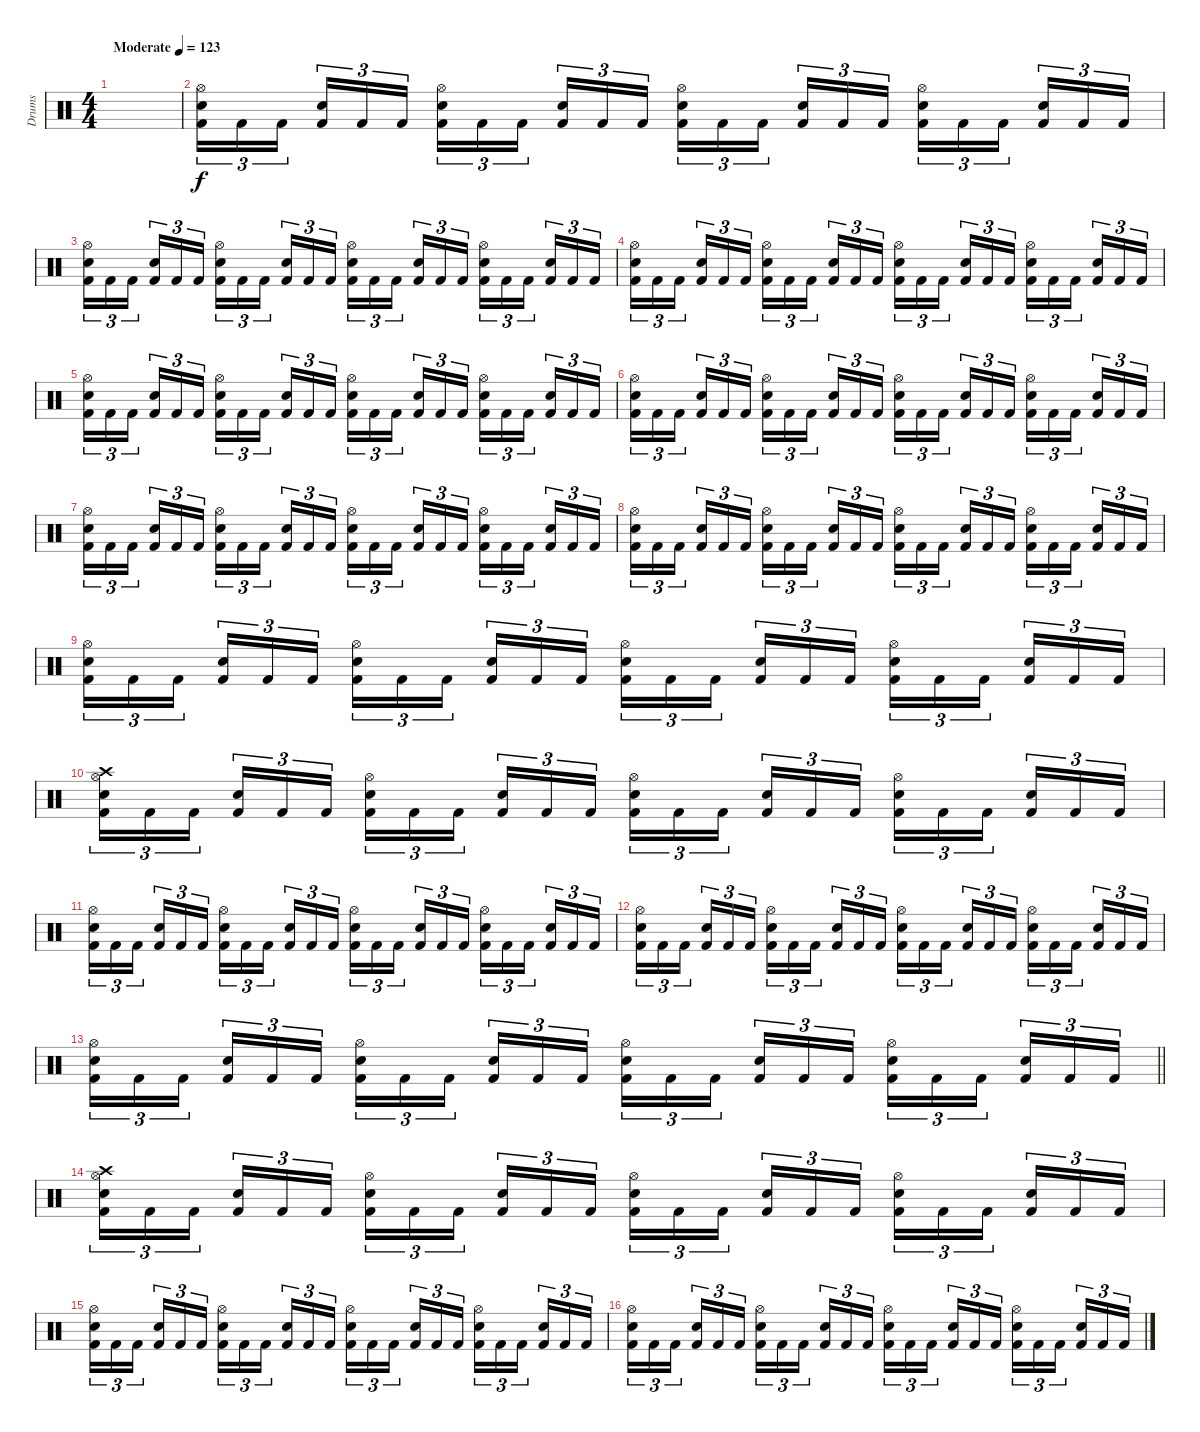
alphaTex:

\track ("Drums" "Drums") {instrument percussion}
\staff {score}
\articulation defaults
\ts (4 4)
\tempo (123 "Moderate")
\clef neutral
\ks c
|
("Hi-Hat (open)" "Snare (hit) 2" "Kick (hit) 2").16{tu (3 2)} "Kick (hit) 2".16{tu (3 2)} "Kick (hit) 2".16{tu (3 2) beam splitsecondary} ("Snare (hit) 2" "Kick (hit) 2").16{tu (3 2)} "Kick (hit) 2".16{tu (3 2)} "Kick (hit) 2".16{tu (3 2)} ("Hi-Hat (open)" "Snare (hit) 2" "Kick (hit) 2").16{tu (3 2)} "Kick (hit) 2".16{tu (3 2)} "Kick (hit) 2".16{tu (3 2) beam splitsecondary} ("Snare (hit) 2" "Kick (hit) 2").16{tu (3 2)} "Kick (hit) 2".16{tu (3 2)} "Kick (hit) 2".16{tu (3 2)} ("Hi-Hat (open)" "Snare (hit) 2" "Kick (hit) 2").16{tu (3 2)} "Kick (hit) 2".16{tu (3 2)} "Kick (hit) 2".16{tu (3 2) beam splitsecondary} ("Snare (hit) 2" "Kick (hit) 2").16{tu (3 2)} "Kick (hit) 2".16{tu (3 2)} "Kick (hit) 2".16{tu (3 2)} ("Hi-Hat (open)" "Snare (hit) 2" "Kick (hit) 2").16{tu (3 2)} "Kick (hit) 2".16{tu (3 2)} "Kick (hit) 2".16{tu (3 2) beam splitsecondary} ("Snare (hit) 2" "Kick (hit) 2").16{tu (3 2)} "Kick (hit) 2".16{tu (3 2)} "Kick (hit) 2".16{tu (3 2)} |
("Hi-Hat (open)" "Snare (hit) 2" "Kick (hit) 2").16{tu (3 2)} "Kick (hit) 2".16{tu (3 2)} "Kick (hit) 2".16{tu (3 2) beam splitsecondary} ("Snare (hit) 2" "Kick (hit) 2").16{tu (3 2)} "Kick (hit) 2".16{tu (3 2)} "Kick (hit) 2".16{tu (3 2)} ("Hi-Hat (open)" "Snare (hit) 2" "Kick (hit) 2").16{tu (3 2)} "Kick (hit) 2".16{tu (3 2)} "Kick (hit) 2".16{tu (3 2) beam splitsecondary} ("Snare (hit) 2" "Kick (hit) 2").16{tu (3 2)} "Kick (hit) 2".16{tu (3 2)} "Kick (hit) 2".16{tu (3 2)} ("Hi-Hat (open)" "Snare (hit) 2" "Kick (hit) 2").16{tu (3 2)} "Kick (hit) 2".16{tu (3 2)} "Kick (hit) 2".16{tu (3 2) beam splitsecondary} ("Snare (hit) 2" "Kick (hit) 2").16{tu (3 2)} "Kick (hit) 2".16{tu (3 2)} "Kick (hit) 2".16{tu (3 2)} ("Hi-Hat (open)" "Snare (hit) 2" "Kick (hit) 2").16{tu (3 2)} "Kick (hit) 2".16{tu (3 2)} "Kick (hit) 2".16{tu (3 2) beam splitsecondary} ("Snare (hit) 2" "Kick (hit) 2").16{tu (3 2)} "Kick (hit) 2".16{tu (3 2)} "Kick (hit) 2".16{tu (3 2)} |
("Hi-Hat (open)" "Snare (hit) 2" "Kick (hit) 2").16{tu (3 2)} "Kick (hit) 2".16{tu (3 2)} "Kick (hit) 2".16{tu (3 2) beam splitsecondary} ("Snare (hit) 2" "Kick (hit) 2").16{tu (3 2)} "Kick (hit) 2".16{tu (3 2)} "Kick (hit) 2".16{tu (3 2)} ("Hi-Hat (open)" "Snare (hit) 2" "Kick (hit) 2").16{tu (3 2)} "Kick (hit) 2".16{tu (3 2)} "Kick (hit) 2".16{tu (3 2) beam splitsecondary} ("Snare (hit) 2" "Kick (hit) 2").16{tu (3 2)} "Kick (hit) 2".16{tu (3 2)} "Kick (hit) 2".16{tu (3 2)} ("Hi-Hat (open)" "Snare (hit) 2" "Kick (hit) 2").16{tu (3 2)} "Kick (hit) 2".16{tu (3 2)} "Kick (hit) 2".16{tu (3 2) beam splitsecondary} ("Snare (hit) 2" "Kick (hit) 2").16{tu (3 2)} "Kick (hit) 2".16{tu (3 2)} "Kick (hit) 2".16{tu (3 2)} ("Hi-Hat (open)" "Snare (hit) 2" "Kick (hit) 2").16{tu (3 2)} "Kick (hit) 2".16{tu (3 2)} "Kick (hit) 2".16{tu (3 2) beam splitsecondary} ("Snare (hit) 2" "Kick (hit) 2").16{tu (3 2)} "Kick (hit) 2".16{tu (3 2)} "Kick (hit) 2".16{tu (3 2)} |
("Hi-Hat (open)" "Snare (hit) 2" "Kick (hit) 2").16{tu (3 2)} "Kick (hit) 2".16{tu (3 2)} "Kick (hit) 2".16{tu (3 2) beam splitsecondary} ("Snare (hit) 2" "Kick (hit) 2").16{tu (3 2)} "Kick (hit) 2".16{tu (3 2)} "Kick (hit) 2".16{tu (3 2)} ("Hi-Hat (open)" "Snare (hit) 2" "Kick (hit) 2").16{tu (3 2)} "Kick (hit) 2".16{tu (3 2)} "Kick (hit) 2".16{tu (3 2) beam splitsecondary} ("Snare (hit) 2" "Kick (hit) 2").16{tu (3 2)} "Kick (hit) 2".16{tu (3 2)} "Kick (hit) 2".16{tu (3 2)} ("Hi-Hat (open)" "Snare (hit) 2" "Kick (hit) 2").16{tu (3 2)} "Kick (hit) 2".16{tu (3 2)} "Kick (hit) 2".16{tu (3 2) beam splitsecondary} ("Snare (hit) 2" "Kick (hit) 2").16{tu (3 2)} "Kick (hit) 2".16{tu (3 2)} "Kick (hit) 2".16{tu (3 2)} ("Hi-Hat (open)" "Snare (hit) 2" "Kick (hit) 2").16{tu (3 2)} "Kick (hit) 2".16{tu (3 2)} "Kick (hit) 2".16{tu (3 2) beam splitsecondary} ("Snare (hit) 2" "Kick (hit) 2").16{tu (3 2)} "Kick (hit) 2".16{tu (3 2)} "Kick (hit) 2".16{tu (3 2)} |
("Hi-Hat (open)" "Snare (hit) 2" "Kick (hit) 2").16{tu (3 2)} "Kick (hit) 2".16{tu (3 2)} "Kick (hit) 2".16{tu (3 2) beam splitsecondary} ("Snare (hit) 2" "Kick (hit) 2").16{tu (3 2)} "Kick (hit) 2".16{tu (3 2)} "Kick (hit) 2".16{tu (3 2)} ("Hi-Hat (open)" "Snare (hit) 2" "Kick (hit) 2").16{tu (3 2)} "Kick (hit) 2".16{tu (3 2)} "Kick (hit) 2".16{tu (3 2) beam splitsecondary} ("Snare (hit) 2" "Kick (hit) 2").16{tu (3 2)} "Kick (hit) 2".16{tu (3 2)} "Kick (hit) 2".16{tu (3 2)} ("Hi-Hat (open)" "Snare (hit) 2" "Kick (hit) 2").16{tu (3 2)} "Kick (hit) 2".16{tu (3 2)} "Kick (hit) 2".16{tu (3 2) beam splitsecondary} ("Snare (hit) 2" "Kick (hit) 2").16{tu (3 2)} "Kick (hit) 2".16{tu (3 2)} "Kick (hit) 2".16{tu (3 2)} ("Hi-Hat (open)" "Snare (hit) 2" "Kick (hit) 2").16{tu (3 2)} "Kick (hit) 2".16{tu (3 2)} "Kick (hit) 2".16{tu (3 2) beam splitsecondary} ("Snare (hit) 2" "Kick (hit) 2").16{tu (3 2)} "Kick (hit) 2".16{tu (3 2)} "Kick (hit) 2".16{tu (3 2)} |
("Hi-Hat (open)" "Snare (hit) 2" "Kick (hit) 2").16{tu (3 2)} "Kick (hit) 2".16{tu (3 2)} "Kick (hit) 2".16{tu (3 2) beam splitsecondary} ("Snare (hit) 2" "Kick (hit) 2").16{tu (3 2)} "Kick (hit) 2".16{tu (3 2)} "Kick (hit) 2".16{tu (3 2)} ("Hi-Hat (open)" "Snare (hit) 2" "Kick (hit) 2").16{tu (3 2)} "Kick (hit) 2".16{tu (3 2)} "Kick (hit) 2".16{tu (3 2) beam splitsecondary} ("Snare (hit) 2" "Kick (hit) 2").16{tu (3 2)} "Kick (hit) 2".16{tu (3 2)} "Kick (hit) 2".16{tu (3 2)} ("Hi-Hat (open)" "Snare (hit) 2" "Kick (hit) 2").16{tu (3 2)} "Kick (hit) 2".16{tu (3 2)} "Kick (hit) 2".16{tu (3 2) beam splitsecondary} ("Snare (hit) 2" "Kick (hit) 2").16{tu (3 2)} "Kick (hit) 2".16{tu (3 2)} "Kick (hit) 2".16{tu (3 2)} ("Hi-Hat (open)" "Snare (hit) 2" "Kick (hit) 2").16{tu (3 2)} "Kick (hit) 2".16{tu (3 2)} "Kick (hit) 2".16{tu (3 2) beam splitsecondary} ("Snare (hit) 2" "Kick (hit) 2").16{tu (3 2)} "Kick (hit) 2".16{tu (3 2)} "Kick (hit) 2".16{tu (3 2)} |
("Hi-Hat (open)" "Snare (hit) 2" "Kick (hit) 2").16{tu (3 2)} "Kick (hit) 2".16{tu (3 2)} "Kick (hit) 2".16{tu (3 2) beam splitsecondary} ("Snare (hit) 2" "Kick (hit) 2").16{tu (3 2)} "Kick (hit) 2".16{tu (3 2)} "Kick (hit) 2".16{tu (3 2)} ("Hi-Hat (open)" "Snare (hit) 2" "Kick (hit) 2").16{tu (3 2)} "Kick (hit) 2".16{tu (3 2)} "Kick (hit) 2".16{tu (3 2) beam splitsecondary} ("Snare (hit) 2" "Kick (hit) 2").16{tu (3 2)} "Kick (hit) 2".16{tu (3 2)} "Kick (hit) 2".16{tu (3 2)} ("Hi-Hat (open)" "Snare (hit) 2" "Kick (hit) 2").16{tu (3 2)} "Kick (hit) 2".16{tu (3 2)} "Kick (hit) 2".16{tu (3 2) beam splitsecondary} ("Snare (hit) 2" "Kick (hit) 2").16{tu (3 2)} "Kick (hit) 2".16{tu (3 2)} "Kick (hit) 2".16{tu (3 2)} ("Hi-Hat (open)" "Snare (hit) 2" "Kick (hit) 2").16{tu (3 2)} "Kick (hit) 2".16{tu (3 2)} "Kick (hit) 2".16{tu (3 2) beam splitsecondary} ("Snare (hit) 2" "Kick (hit) 2").16{tu (3 2)} "Kick (hit) 2".16{tu (3 2)} "Kick (hit) 2".16{tu (3 2)} |
("Hi-Hat (open)" "Snare (hit) 2" "Kick (hit) 2").16{tu (3 2)} "Kick (hit) 2".16{tu (3 2)} "Kick (hit) 2".16{tu (3 2) beam splitsecondary} ("Snare (hit) 2" "Kick (hit) 2").16{tu (3 2)} "Kick (hit) 2".16{tu (3 2)} "Kick (hit) 2".16{tu (3 2)} ("Hi-Hat (open)" "Snare (hit) 2" "Kick (hit) 2").16{tu (3 2)} "Kick (hit) 2".16{tu (3 2)} "Kick (hit) 2".16{tu (3 2) beam splitsecondary} ("Snare (hit) 2" "Kick (hit) 2").16{tu (3 2)} "Kick (hit) 2".16{tu (3 2)} "Kick (hit) 2".16{tu (3 2)} ("Hi-Hat (open)" "Snare (hit) 2" "Kick (hit) 2").16{tu (3 2)} "Kick (hit) 2".16{tu (3 2)} "Kick (hit) 2".16{tu (3 2) beam splitsecondary} ("Snare (hit) 2" "Kick (hit) 2").16{tu (3 2)} "Kick (hit) 2".16{tu (3 2)} "Kick (hit) 2".16{tu (3 2)} ("Hi-Hat (open)" "Snare (hit) 2" "Kick (hit) 2").16{tu (3 2)} "Kick (hit) 2".16{tu (3 2)} "Kick (hit) 2".16{tu (3 2) beam splitsecondary} ("Snare (hit) 2" "Kick (hit) 2").16{tu (3 2)} "Kick (hit) 2".16{tu (3 2)} "Kick (hit) 2".16{tu (3 2)} |
("Crash high (hit)" "Hi-Hat (open)" "Snare (hit) 2" "Kick (hit) 2").16{tu (3 2)} "Kick (hit) 2".16{tu (3 2)} "Kick (hit) 2".16{tu (3 2) beam splitsecondary} ("Snare (hit) 2" "Kick (hit) 2").16{tu (3 2)} "Kick (hit) 2".16{tu (3 2)} "Kick (hit) 2".16{tu (3 2)} ("Hi-Hat (open)" "Snare (hit) 2" "Kick (hit) 2").16{tu (3 2)} "Kick (hit) 2".16{tu (3 2)} "Kick (hit) 2".16{tu (3 2) beam splitsecondary} ("Snare (hit) 2" "Kick (hit) 2").16{tu (3 2)} "Kick (hit) 2".16{tu (3 2)} "Kick (hit) 2".16{tu (3 2)} ("Hi-Hat (open)" "Snare (hit) 2" "Kick (hit) 2").16{tu (3 2)} "Kick (hit) 2".16{tu (3 2)} "Kick (hit) 2".16{tu (3 2) beam splitsecondary} ("Snare (hit) 2" "Kick (hit) 2").16{tu (3 2)} "Kick (hit) 2".16{tu (3 2)} "Kick (hit) 2".16{tu (3 2)} ("Hi-Hat (open)" "Snare (hit) 2" "Kick (hit) 2").16{tu (3 2)} "Kick (hit) 2".16{tu (3 2)} "Kick (hit) 2".16{tu (3 2) beam splitsecondary} ("Snare (hit) 2" "Kick (hit) 2").16{tu (3 2)} "Kick (hit) 2".16{tu (3 2)} "Kick (hit) 2".16{tu (3 2)} |
("Hi-Hat (open)" "Snare (hit) 2" "Kick (hit) 2").16{tu (3 2)} "Kick (hit) 2".16{tu (3 2)} "Kick (hit) 2".16{tu (3 2) beam splitsecondary} ("Snare (hit) 2" "Kick (hit) 2").16{tu (3 2)} "Kick (hit) 2".16{tu (3 2)} "Kick (hit) 2".16{tu (3 2)} ("Hi-Hat (open)" "Snare (hit) 2" "Kick (hit) 2").16{tu (3 2)} "Kick (hit) 2".16{tu (3 2)} "Kick (hit) 2".16{tu (3 2) beam splitsecondary} ("Snare (hit) 2" "Kick (hit) 2").16{tu (3 2)} "Kick (hit) 2".16{tu (3 2)} "Kick (hit) 2".16{tu (3 2)} ("Hi-Hat (open)" "Snare (hit) 2" "Kick (hit) 2").16{tu (3 2)} "Kick (hit) 2".16{tu (3 2)} "Kick (hit) 2".16{tu (3 2) beam splitsecondary} ("Snare (hit) 2" "Kick (hit) 2").16{tu (3 2)} "Kick (hit) 2".16{tu (3 2)} "Kick (hit) 2".16{tu (3 2)} ("Hi-Hat (open)" "Snare (hit) 2" "Kick (hit) 2").16{tu (3 2)} "Kick (hit) 2".16{tu (3 2)} "Kick (hit) 2".16{tu (3 2) beam splitsecondary} ("Snare (hit) 2" "Kick (hit) 2").16{tu (3 2)} "Kick (hit) 2".16{tu (3 2)} "Kick (hit) 2".16{tu (3 2)} |
("Hi-Hat (open)" "Snare (hit) 2" "Kick (hit) 2").16{tu (3 2)} "Kick (hit) 2".16{tu (3 2)} "Kick (hit) 2".16{tu (3 2) beam splitsecondary} ("Snare (hit) 2" "Kick (hit) 2").16{tu (3 2)} "Kick (hit) 2".16{tu (3 2)} "Kick (hit) 2".16{tu (3 2)} ("Hi-Hat (open)" "Snare (hit) 2" "Kick (hit) 2").16{tu (3 2)} "Kick (hit) 2".16{tu (3 2)} "Kick (hit) 2".16{tu (3 2) beam splitsecondary} ("Snare (hit) 2" "Kick (hit) 2").16{tu (3 2)} "Kick (hit) 2".16{tu (3 2)} "Kick (hit) 2".16{tu (3 2)} ("Hi-Hat (open)" "Snare (hit) 2" "Kick (hit) 2").16{tu (3 2)} "Kick (hit) 2".16{tu (3 2)} "Kick (hit) 2".16{tu (3 2) beam splitsecondary} ("Snare (hit) 2" "Kick (hit) 2").16{tu (3 2)} "Kick (hit) 2".16{tu (3 2)} "Kick (hit) 2".16{tu (3 2)} ("Hi-Hat (open)" "Snare (hit) 2" "Kick (hit) 2").16{tu (3 2)} "Kick (hit) 2".16{tu (3 2)} "Kick (hit) 2".16{tu (3 2) beam splitsecondary} ("Snare (hit) 2" "Kick (hit) 2").16{tu (3 2)} "Kick (hit) 2".16{tu (3 2)} "Kick (hit) 2".16{tu (3 2)} |
\barLineRight lightlight
("Hi-Hat (open)" "Snare (hit) 2" "Kick (hit) 2").16{tu (3 2)} "Kick (hit) 2".16{tu (3 2)} "Kick (hit) 2".16{tu (3 2) beam splitsecondary} ("Snare (hit) 2" "Kick (hit) 2").16{tu (3 2)} "Kick (hit) 2".16{tu (3 2)} "Kick (hit) 2".16{tu (3 2)} ("Hi-Hat (open)" "Snare (hit) 2" "Kick (hit) 2").16{tu (3 2)} "Kick (hit) 2".16{tu (3 2)} "Kick (hit) 2".16{tu (3 2) beam splitsecondary} ("Snare (hit) 2" "Kick (hit) 2").16{tu (3 2)} "Kick (hit) 2".16{tu (3 2)} "Kick (hit) 2".16{tu (3 2)} ("Hi-Hat (open)" "Snare (hit) 2" "Kick (hit) 2").16{tu (3 2)} "Kick (hit) 2".16{tu (3 2)} "Kick (hit) 2".16{tu (3 2) beam splitsecondary} ("Snare (hit) 2" "Kick (hit) 2").16{tu (3 2)} "Kick (hit) 2".16{tu (3 2)} "Kick (hit) 2".16{tu (3 2)} ("Hi-Hat (open)" "Snare (hit) 2" "Kick (hit) 2").16{tu (3 2)} "Kick (hit) 2".16{tu (3 2)} "Kick (hit) 2".16{tu (3 2) beam splitsecondary} ("Snare (hit) 2" "Kick (hit) 2").16{tu (3 2)} "Kick (hit) 2".16{tu (3 2)} "Kick (hit) 2".16{tu (3 2)} |
("Crash high (hit)" "Hi-Hat (open)" "Snare (hit) 2" "Kick (hit) 2").16{tu (3 2)} "Kick (hit) 2".16{tu (3 2)} "Kick (hit) 2".16{tu (3 2) beam splitsecondary} ("Snare (hit) 2" "Kick (hit) 2").16{tu (3 2)} "Kick (hit) 2".16{tu (3 2)} "Kick (hit) 2".16{tu (3 2)} ("Hi-Hat (open)" "Snare (hit) 2" "Kick (hit) 2").16{tu (3 2)} "Kick (hit) 2".16{tu (3 2)} "Kick (hit) 2".16{tu (3 2) beam splitsecondary} ("Snare (hit) 2" "Kick (hit) 2").16{tu (3 2)} "Kick (hit) 2".16{tu (3 2)} "Kick (hit) 2".16{tu (3 2)} ("Hi-Hat (open)" "Snare (hit) 2" "Kick (hit) 2").16{tu (3 2)} "Kick (hit) 2".16{tu (3 2)} "Kick (hit) 2".16{tu (3 2) beam splitsecondary} ("Snare (hit) 2" "Kick (hit) 2").16{tu (3 2)} "Kick (hit) 2".16{tu (3 2)} "Kick (hit) 2".16{tu (3 2)} ("Hi-Hat (open)" "Snare (hit) 2" "Kick (hit) 2").16{tu (3 2)} "Kick (hit) 2".16{tu (3 2)} "Kick (hit) 2".16{tu (3 2) beam splitsecondary} ("Snare (hit) 2" "Kick (hit) 2").16{tu (3 2)} "Kick (hit) 2".16{tu (3 2)} "Kick (hit) 2".16{tu (3 2)} |
("Hi-Hat (open)" "Snare (hit) 2" "Kick (hit) 2").16{tu (3 2)} "Kick (hit) 2".16{tu (3 2)} "Kick (hit) 2".16{tu (3 2) beam splitsecondary} ("Snare (hit) 2" "Kick (hit) 2").16{tu (3 2)} "Kick (hit) 2".16{tu (3 2)} "Kick (hit) 2".16{tu (3 2)} ("Hi-Hat (open)" "Snare (hit) 2" "Kick (hit) 2").16{tu (3 2)} "Kick (hit) 2".16{tu (3 2)} "Kick (hit) 2".16{tu (3 2) beam splitsecondary} ("Snare (hit) 2" "Kick (hit) 2").16{tu (3 2)} "Kick (hit) 2".16{tu (3 2)} "Kick (hit) 2".16{tu (3 2)} ("Hi-Hat (open)" "Snare (hit) 2" "Kick (hit) 2").16{tu (3 2)} "Kick (hit) 2".16{tu (3 2)} "Kick (hit) 2".16{tu (3 2) beam splitsecondary} ("Snare (hit) 2" "Kick (hit) 2").16{tu (3 2)} "Kick (hit) 2".16{tu (3 2)} "Kick (hit) 2".16{tu (3 2)} ("Hi-Hat (open)" "Snare (hit) 2" "Kick (hit) 2").16{tu (3 2)} "Kick (hit) 2".16{tu (3 2)} "Kick (hit) 2".16{tu (3 2) beam splitsecondary} ("Snare (hit) 2" "Kick (hit) 2").16{tu (3 2)} "Kick (hit) 2".16{tu (3 2)} "Kick (hit) 2".16{tu (3 2)} |
("Hi-Hat (open)" "Snare (hit) 2" "Kick (hit) 2").16{tu (3 2)} "Kick (hit) 2".16{tu (3 2)} "Kick (hit) 2".16{tu (3 2) beam splitsecondary} ("Snare (hit) 2" "Kick (hit) 2").16{tu (3 2)} "Kick (hit) 2".16{tu (3 2)} "Kick (hit) 2".16{tu (3 2)} ("Hi-Hat (open)" "Snare (hit) 2" "Kick (hit) 2").16{tu (3 2)} "Kick (hit) 2".16{tu (3 2)} "Kick (hit) 2".16{tu (3 2) beam splitsecondary} ("Snare (hit) 2" "Kick (hit) 2").16{tu (3 2)} "Kick (hit) 2".16{tu (3 2)} "Kick (hit) 2".16{tu (3 2)} ("Hi-Hat (open)" "Snare (hit) 2" "Kick (hit) 2").16{tu (3 2)} "Kick (hit) 2".16{tu (3 2)} "Kick (hit) 2".16{tu (3 2) beam splitsecondary} ("Snare (hit) 2" "Kick (hit) 2").16{tu (3 2)} "Kick (hit) 2".16{tu (3 2)} "Kick (hit) 2".16{tu (3 2)} ("Hi-Hat (open)" "Snare (hit) 2" "Kick (hit) 2").16{tu (3 2)} "Kick (hit) 2".16{tu (3 2)} "Kick (hit) 2".16{tu (3 2) beam splitsecondary} ("Snare (hit) 2" "Kick (hit) 2").16{tu (3 2)} "Kick (hit) 2".16{tu (3 2)} "Kick (hit) 2".16{tu (3 2)}
